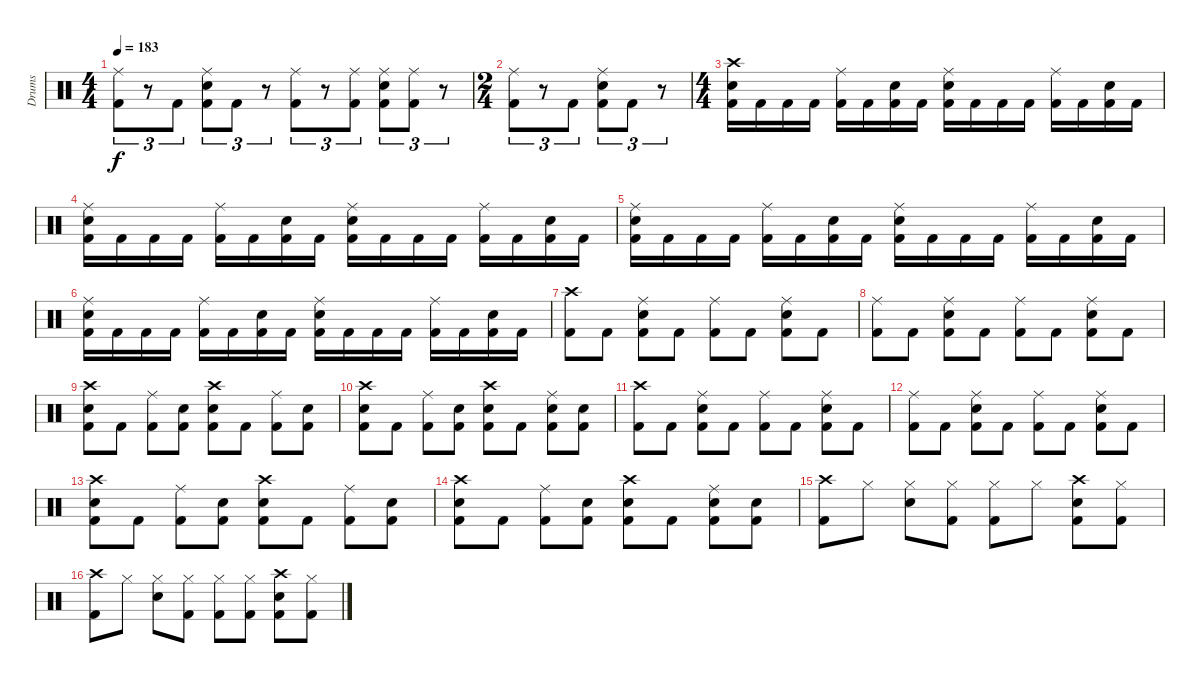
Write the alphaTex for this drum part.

\track ("Drums" "Drums") {instrument percussion}
\staff {score}
\articulation defaults
\ts (4 4)
\tempo 183
\clef neutral
\ks c
("Ride (middle)" "Kick (hit) 2").8{tu (3 2) dy f} r.8{tu (3 2)} "Kick (hit) 2".8{tu (3 2)} ("Ride (middle)" "Snare (hit) 2" "Kick (hit) 2").8{tu (3 2)} "Kick (hit) 2".8{tu (3 2)} r.8{tu (3 2)} ("Ride (middle)" "Kick (hit) 2").8{tu (3 2)} r.8{tu (3 2)} ("Ride (middle)" "Kick (hit) 2").8{tu (3 2)} ("Ride (middle)" "Snare (hit) 2" "Kick (hit) 2").8{tu (3 2)} ("Ride (middle)" "Kick (hit) 2").8{tu (3 2)} r.8{tu (3 2)} |
\ts (2 4)
("Ride (middle)" "Kick (hit) 2").8{tu (3 2)} r.8{tu (3 2)} "Kick (hit) 2".8{tu (3 2)} ("Ride (middle)" "Snare (hit) 2" "Kick (hit) 2").8{tu (3 2)} "Kick (hit) 2".8{tu (3 2)} r.8{tu (3 2)} |
\ts (4 4)
("Crash high (hit)" "Snare (hit) 2" "Kick (hit) 2").16 "Kick (hit) 2".16 "Kick (hit) 2".16 "Kick (hit) 2".16 ("Ride (middle)" "Kick (hit) 2").16 "Kick (hit) 2".16 ("Snare (hit) 2" "Kick (hit) 2").16 "Kick (hit) 2".16 ("Ride (middle)" "Snare (hit) 2" "Kick (hit) 2").16 "Kick (hit) 2".16 "Kick (hit) 2".16 "Kick (hit) 2".16 ("Ride (middle)" "Kick (hit) 2").16 "Kick (hit) 2".16 ("Snare (hit) 2" "Kick (hit) 2").16 "Kick (hit) 2".16 |
("Ride (middle)" "Snare (hit) 2" "Kick (hit) 2").16 "Kick (hit) 2".16 "Kick (hit) 2".16 "Kick (hit) 2".16 ("Ride (middle)" "Kick (hit) 2").16 "Kick (hit) 2".16 ("Snare (hit) 2" "Kick (hit) 2").16 "Kick (hit) 2".16 ("Ride (middle)" "Snare (hit) 2" "Kick (hit) 2").16 "Kick (hit) 2".16 "Kick (hit) 2".16 "Kick (hit) 2".16 ("Ride (middle)" "Kick (hit) 2").16 "Kick (hit) 2".16 ("Snare (hit) 2" "Kick (hit) 2").16 "Kick (hit) 2".16 |
("Ride (middle)" "Snare (hit) 2" "Kick (hit) 2").16 "Kick (hit) 2".16 "Kick (hit) 2".16 "Kick (hit) 2".16 ("Ride (middle)" "Kick (hit) 2").16 "Kick (hit) 2".16 ("Snare (hit) 2" "Kick (hit) 2").16 "Kick (hit) 2".16 ("Ride (middle)" "Snare (hit) 2" "Kick (hit) 2").16 "Kick (hit) 2".16 "Kick (hit) 2".16 "Kick (hit) 2".16 ("Ride (middle)" "Kick (hit) 2").16 "Kick (hit) 2".16 ("Snare (hit) 2" "Kick (hit) 2").16 "Kick (hit) 2".16 |
("Ride (middle)" "Snare (hit) 2" "Kick (hit) 2").16 "Kick (hit) 2".16 "Kick (hit) 2".16 "Kick (hit) 2".16 ("Ride (middle)" "Kick (hit) 2").16 "Kick (hit) 2".16 ("Snare (hit) 2" "Kick (hit) 2").16 "Kick (hit) 2".16 ("Ride (middle)" "Snare (hit) 2" "Kick (hit) 2").16 "Kick (hit) 2".16 "Kick (hit) 2".16 "Kick (hit) 2".16 ("Ride (middle)" "Kick (hit) 2").16 "Kick (hit) 2".16 ("Snare (hit) 2" "Kick (hit) 2").16 "Kick (hit) 2".16 |
("Crash high (hit)" "Kick (hit) 2").8 "Kick (hit) 2".8 ("Ride (middle)" "Snare (hit) 2" "Kick (hit) 2").8 "Kick (hit) 2".8 ("Ride (middle)" "Kick (hit) 2").8 "Kick (hit) 2".8 ("Ride (middle)" "Snare (hit) 2" "Kick (hit) 2").8 "Kick (hit) 2".8 |
("Ride (middle)" "Kick (hit) 2").8 "Kick (hit) 2".8 ("Ride (middle)" "Snare (hit) 2" "Kick (hit) 2").8 "Kick (hit) 2".8 ("Ride (middle)" "Kick (hit) 2").8 "Kick (hit) 2".8 ("Ride (middle)" "Snare (hit) 2" "Kick (hit) 2").8 "Kick (hit) 2".8 |
("Crash high (hit)" "Snare (hit) 2" "Kick (hit) 2").8 "Kick (hit) 2".8 ("Ride (middle)" "Kick (hit) 2").8 ("Snare (hit) 2" "Kick (hit) 2").8 ("Crash high (hit)" "Snare (hit) 2" "Kick (hit) 2").8 "Kick (hit) 2".8 ("Ride (middle)" "Kick (hit) 2").8 ("Snare (hit) 2" "Kick (hit) 2").8 |
("Crash high (hit)" "Snare (hit) 2" "Kick (hit) 2").8 "Kick (hit) 2".8 ("Ride (middle)" "Kick (hit) 2").8 ("Snare (hit) 2" "Kick (hit) 2").8 ("Crash high (hit)" "Snare (hit) 2" "Kick (hit) 2").8 "Kick (hit) 2".8 ("Ride (middle)" "Snare (hit) 2" "Kick (hit) 2").8 ("Snare (hit) 2" "Kick (hit) 2").8 |
("Crash high (hit)" "Kick (hit) 2").8 "Kick (hit) 2".8 ("Ride (middle)" "Snare (hit) 2" "Kick (hit) 2").8 "Kick (hit) 2".8 ("Ride (middle)" "Kick (hit) 2").8 "Kick (hit) 2".8 ("Ride (middle)" "Snare (hit) 2" "Kick (hit) 2").8 "Kick (hit) 2".8 |
("Ride (middle)" "Kick (hit) 2").8 "Kick (hit) 2".8 ("Ride (middle)" "Snare (hit) 2" "Kick (hit) 2").8 "Kick (hit) 2".8 ("Ride (middle)" "Kick (hit) 2").8 "Kick (hit) 2".8 ("Ride (middle)" "Snare (hit) 2" "Kick (hit) 2").8 "Kick (hit) 2".8 |
("Crash high (hit)" "Snare (hit) 2" "Kick (hit) 2").8 "Kick (hit) 2".8 ("Ride (middle)" "Kick (hit) 2").8 ("Snare (hit) 2" "Kick (hit) 2").8 ("Crash high (hit)" "Snare (hit) 2" "Kick (hit) 2").8 "Kick (hit) 2".8 ("Ride (middle)" "Kick (hit) 2").8 ("Snare (hit) 2" "Kick (hit) 2").8 |
("Crash high (hit)" "Snare (hit) 2" "Kick (hit) 2").8 "Kick (hit) 2".8 ("Ride (middle)" "Kick (hit) 2").8 ("Snare (hit) 2" "Kick (hit) 2").8 ("Crash high (hit)" "Snare (hit) 2" "Kick (hit) 2").8 "Kick (hit) 2".8 ("Ride (middle)" "Snare (hit) 2" "Kick (hit) 2").8 ("Snare (hit) 2" "Kick (hit) 2").8 |
("Crash high (hit)" "Kick (hit) 2").8 "Hi-Hat (closed)".8 ("Hi-Hat (closed)" "Snare (hit) 2").8 ("Hi-Hat (closed)" "Kick (hit) 2").8 ("Hi-Hat (closed)" "Kick (hit) 2").8 "Hi-Hat (closed)".8 ("Crash high (hit)" "Snare (hit) 2" "Kick (hit) 2").8 ("Hi-Hat (closed)" "Kick (hit) 2").8 |
("Crash high (hit)" "Kick (hit) 2").8 "Hi-Hat (closed)".8 ("Hi-Hat (closed)" "Snare (hit) 2").8 ("Hi-Hat (closed)" "Kick (hit) 2").8 ("Hi-Hat (closed)" "Kick (hit) 2").8 ("Hi-Hat (closed)" "Kick (hit) 2").8 ("Crash high (hit)" "Snare (hit) 2" "Kick (hit) 2").8 ("Hi-Hat (closed)" "Kick (hit) 2").8
